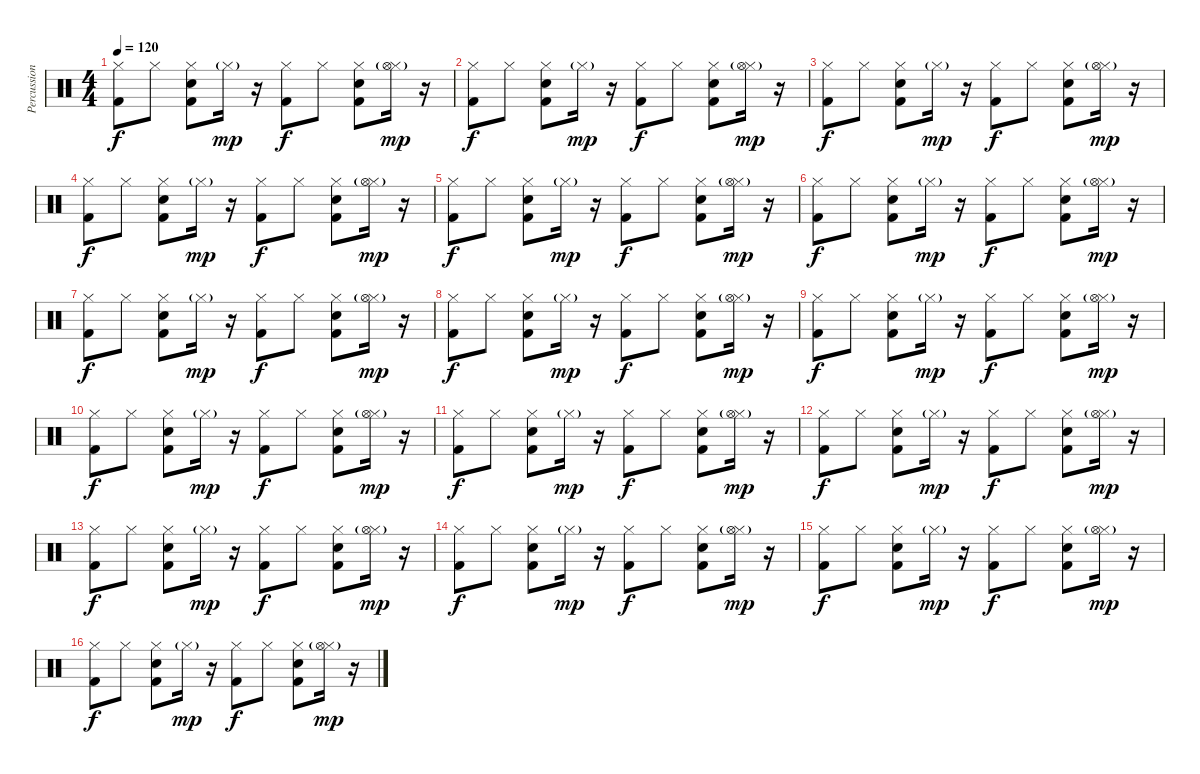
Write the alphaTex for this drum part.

\track ("Percussion" "Percussion") {instrument percussion}
\staff {score}
\articulation defaults
\ts (4 4)
\tempo 120
\clef neutral
\ks c
("Hi-Hat (closed)" "Kick (hit) 2").8{dy f} "Hi-Hat (closed)".8 ("Hi-Hat (closed)" "Kick (hit) 2" "Hand Clap (hit)").8 "Hi-Hat (closed)"{g}.16{dy mp} r.16 ("Hi-Hat (closed)" "Kick (hit) 2").8{dy f} "Hi-Hat (closed)".8 ("Hi-Hat (closed)" "Kick (hit) 2" "Hand Clap (hit)").8 ("Hi-Hat (closed)"{g} "Hi-Hat (open)"{g}).16{dy mp} r.16 |
("Hi-Hat (closed)" "Kick (hit) 2").8{dy f} "Hi-Hat (closed)".8 ("Hi-Hat (closed)" "Kick (hit) 2" "Hand Clap (hit)").8 "Hi-Hat (closed)"{g}.16{dy mp} r.16 ("Hi-Hat (closed)" "Kick (hit) 2").8{dy f} "Hi-Hat (closed)".8 ("Hi-Hat (closed)" "Kick (hit) 2" "Hand Clap (hit)").8 ("Hi-Hat (closed)"{g} "Hi-Hat (open)"{g}).16{dy mp} r.16 |
("Hi-Hat (closed)" "Kick (hit) 2").8{dy f} "Hi-Hat (closed)".8 ("Hi-Hat (closed)" "Kick (hit) 2" "Hand Clap (hit)").8 "Hi-Hat (closed)"{g}.16{dy mp} r.16 ("Hi-Hat (closed)" "Kick (hit) 2").8{dy f} "Hi-Hat (closed)".8 ("Hi-Hat (closed)" "Kick (hit) 2" "Hand Clap (hit)").8 ("Hi-Hat (closed)"{g} "Hi-Hat (open)"{g}).16{dy mp} r.16 |
("Hi-Hat (closed)" "Kick (hit) 2").8{dy f} "Hi-Hat (closed)".8 ("Hi-Hat (closed)" "Kick (hit) 2" "Hand Clap (hit)").8 "Hi-Hat (closed)"{g}.16{dy mp} r.16 ("Hi-Hat (closed)" "Kick (hit) 2").8{dy f} "Hi-Hat (closed)".8 ("Hi-Hat (closed)" "Kick (hit) 2" "Hand Clap (hit)").8 ("Hi-Hat (closed)"{g} "Hi-Hat (open)"{g}).16{dy mp} r.16 |
("Hi-Hat (closed)" "Kick (hit) 2").8{dy f} "Hi-Hat (closed)".8 ("Hi-Hat (closed)" "Kick (hit) 2" "Hand Clap (hit)").8 "Hi-Hat (closed)"{g}.16{dy mp} r.16 ("Hi-Hat (closed)" "Kick (hit) 2").8{dy f} "Hi-Hat (closed)".8 ("Hi-Hat (closed)" "Kick (hit) 2" "Hand Clap (hit)").8 ("Hi-Hat (closed)"{g} "Hi-Hat (open)"{g}).16{dy mp} r.16 |
("Hi-Hat (closed)" "Kick (hit) 2").8{dy f} "Hi-Hat (closed)".8 ("Hi-Hat (closed)" "Kick (hit) 2" "Hand Clap (hit)").8 "Hi-Hat (closed)"{g}.16{dy mp} r.16 ("Hi-Hat (closed)" "Kick (hit) 2").8{dy f} "Hi-Hat (closed)".8 ("Hi-Hat (closed)" "Kick (hit) 2" "Hand Clap (hit)").8 ("Hi-Hat (closed)"{g} "Hi-Hat (open)"{g}).16{dy mp} r.16 |
("Hi-Hat (closed)" "Kick (hit) 2").8{dy f} "Hi-Hat (closed)".8 ("Hi-Hat (closed)" "Kick (hit) 2" "Hand Clap (hit)").8 "Hi-Hat (closed)"{g}.16{dy mp} r.16 ("Hi-Hat (closed)" "Kick (hit) 2").8{dy f} "Hi-Hat (closed)".8 ("Hi-Hat (closed)" "Kick (hit) 2" "Hand Clap (hit)").8 ("Hi-Hat (closed)"{g} "Hi-Hat (open)"{g}).16{dy mp} r.16 |
("Hi-Hat (closed)" "Kick (hit) 2").8{dy f} "Hi-Hat (closed)".8 ("Hi-Hat (closed)" "Kick (hit) 2" "Hand Clap (hit)").8 "Hi-Hat (closed)"{g}.16{dy mp} r.16 ("Hi-Hat (closed)" "Kick (hit) 2").8{dy f} "Hi-Hat (closed)".8 ("Hi-Hat (closed)" "Kick (hit) 2" "Hand Clap (hit)").8 ("Hi-Hat (closed)"{g} "Hi-Hat (open)"{g}).16{dy mp} r.16 |
("Hi-Hat (closed)" "Kick (hit) 2").8{dy f} "Hi-Hat (closed)".8 ("Hi-Hat (closed)" "Kick (hit) 2" "Hand Clap (hit)").8 "Hi-Hat (closed)"{g}.16{dy mp} r.16 ("Hi-Hat (closed)" "Kick (hit) 2").8{dy f} "Hi-Hat (closed)".8 ("Hi-Hat (closed)" "Kick (hit) 2" "Hand Clap (hit)").8 ("Hi-Hat (closed)"{g} "Hi-Hat (open)"{g}).16{dy mp} r.16 |
("Hi-Hat (closed)" "Kick (hit) 2").8{dy f} "Hi-Hat (closed)".8 ("Hi-Hat (closed)" "Kick (hit) 2" "Hand Clap (hit)").8 "Hi-Hat (closed)"{g}.16{dy mp} r.16 ("Hi-Hat (closed)" "Kick (hit) 2").8{dy f} "Hi-Hat (closed)".8 ("Hi-Hat (closed)" "Kick (hit) 2" "Hand Clap (hit)").8 ("Hi-Hat (closed)"{g} "Hi-Hat (open)"{g}).16{dy mp} r.16 |
("Hi-Hat (closed)" "Kick (hit) 2").8{dy f} "Hi-Hat (closed)".8 ("Hi-Hat (closed)" "Kick (hit) 2" "Hand Clap (hit)").8 "Hi-Hat (closed)"{g}.16{dy mp} r.16 ("Hi-Hat (closed)" "Kick (hit) 2").8{dy f} "Hi-Hat (closed)".8 ("Hi-Hat (closed)" "Kick (hit) 2" "Hand Clap (hit)").8 ("Hi-Hat (closed)"{g} "Hi-Hat (open)"{g}).16{dy mp} r.16 |
("Hi-Hat (closed)" "Kick (hit) 2").8{dy f} "Hi-Hat (closed)".8 ("Hi-Hat (closed)" "Kick (hit) 2" "Hand Clap (hit)").8 "Hi-Hat (closed)"{g}.16{dy mp} r.16 ("Hi-Hat (closed)" "Kick (hit) 2").8{dy f} "Hi-Hat (closed)".8 ("Hi-Hat (closed)" "Kick (hit) 2" "Hand Clap (hit)").8 ("Hi-Hat (closed)"{g} "Hi-Hat (open)"{g}).16{dy mp} r.16 |
("Hi-Hat (closed)" "Kick (hit) 2").8{dy f} "Hi-Hat (closed)".8 ("Hi-Hat (closed)" "Kick (hit) 2" "Hand Clap (hit)").8 "Hi-Hat (closed)"{g}.16{dy mp} r.16 ("Hi-Hat (closed)" "Kick (hit) 2").8{dy f} "Hi-Hat (closed)".8 ("Hi-Hat (closed)" "Kick (hit) 2" "Hand Clap (hit)").8 ("Hi-Hat (closed)"{g} "Hi-Hat (open)"{g}).16{dy mp} r.16 |
("Hi-Hat (closed)" "Kick (hit) 2").8{dy f} "Hi-Hat (closed)".8 ("Hi-Hat (closed)" "Kick (hit) 2" "Hand Clap (hit)").8 "Hi-Hat (closed)"{g}.16{dy mp} r.16 ("Hi-Hat (closed)" "Kick (hit) 2").8{dy f} "Hi-Hat (closed)".8 ("Hi-Hat (closed)" "Kick (hit) 2" "Hand Clap (hit)").8 ("Hi-Hat (closed)"{g} "Hi-Hat (open)"{g}).16{dy mp} r.16 |
("Hi-Hat (closed)" "Kick (hit) 2").8{dy f} "Hi-Hat (closed)".8 ("Hi-Hat (closed)" "Kick (hit) 2" "Hand Clap (hit)").8 "Hi-Hat (closed)"{g}.16{dy mp} r.16 ("Hi-Hat (closed)" "Kick (hit) 2").8{dy f} "Hi-Hat (closed)".8 ("Hi-Hat (closed)" "Kick (hit) 2" "Hand Clap (hit)").8 ("Hi-Hat (closed)"{g} "Hi-Hat (open)"{g}).16{dy mp} r.16 |
("Hi-Hat (closed)" "Kick (hit) 2").8{dy f} "Hi-Hat (closed)".8 ("Hi-Hat (closed)" "Kick (hit) 2" "Hand Clap (hit)").8 "Hi-Hat (closed)"{g}.16{dy mp} r.16 ("Hi-Hat (closed)" "Kick (hit) 2").8{dy f} "Hi-Hat (closed)".8 ("Hi-Hat (closed)" "Kick (hit) 2" "Hand Clap (hit)").8 ("Hi-Hat (closed)"{g} "Hi-Hat (open)"{g}).16{dy mp} r.16
